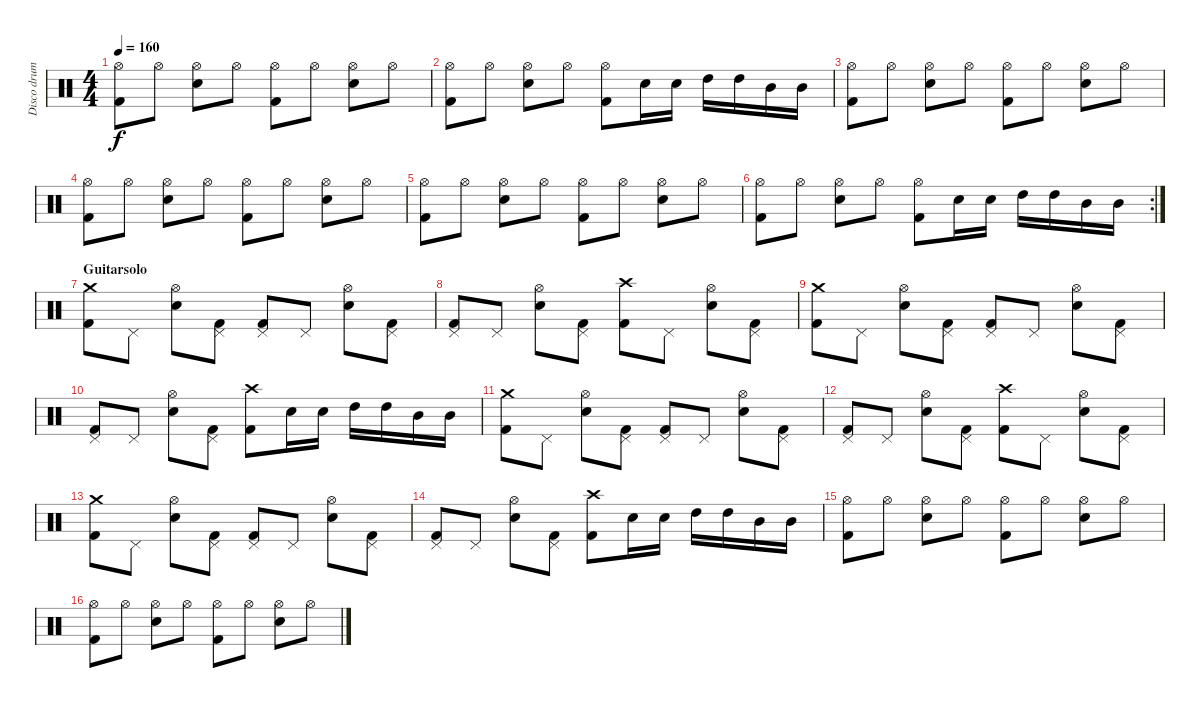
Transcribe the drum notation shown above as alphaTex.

\track ("Disco drum" "Disco drum") {instrument percussion}
\staff {score}
\articulation defaults
\ts (4 4)
\tempo 160
\clef neutral
\ks c
("Hi-Hat (open)" "Kick (hit) 2").8{dy f} "Hi-Hat (open)".8 ("Hi-Hat (open)" "Electric Snare (hit)").8 "Hi-Hat (open)".8 ("Hi-Hat (open)" "Kick (hit) 2").8 "Hi-Hat (open)".8 ("Hi-Hat (open)" "Electric Snare (hit)").8 "Hi-Hat (open)".8 |
("Hi-Hat (open)" "Kick (hit) 2").8 "Hi-Hat (open)".8 ("Hi-Hat (open)" "Electric Snare (hit)").8 "Hi-Hat (open)".8 ("Hi-Hat (open)" "Kick (hit) 2").8 "Electric Snare (hit)".16 "Electric Snare (hit)".16 "High Tom (hit)".16 "High Tom (hit)".16 "Mid Tom (hit)".16 "Mid Tom (hit)".16 |
("Hi-Hat (open)" "Kick (hit) 2").8 "Hi-Hat (open)".8 ("Hi-Hat (open)" "Electric Snare (hit)").8 "Hi-Hat (open)".8 ("Hi-Hat (open)" "Kick (hit) 2").8 "Hi-Hat (open)".8 ("Hi-Hat (open)" "Electric Snare (hit)").8 "Hi-Hat (open)".8 |
("Hi-Hat (open)" "Kick (hit) 2").8 "Hi-Hat (open)".8 ("Hi-Hat (open)" "Electric Snare (hit)").8 "Hi-Hat (open)".8 ("Hi-Hat (open)" "Kick (hit) 2").8 "Hi-Hat (open)".8 ("Hi-Hat (open)" "Electric Snare (hit)").8 "Hi-Hat (open)".8 |
("Hi-Hat (open)" "Kick (hit) 2").8 "Hi-Hat (open)".8 ("Hi-Hat (open)" "Electric Snare (hit)").8 "Hi-Hat (open)".8 ("Hi-Hat (open)" "Kick (hit) 2").8 "Hi-Hat (open)".8 ("Hi-Hat (open)" "Electric Snare (hit)").8 "Hi-Hat (open)".8 |
\rc 2
("Hi-Hat (open)" "Kick (hit) 2").8 "Hi-Hat (open)".8 ("Hi-Hat (open)" "Electric Snare (hit)").8 "Hi-Hat (open)".8 ("Hi-Hat (open)" "Kick (hit) 2").8 "Electric Snare (hit)".16 "Electric Snare (hit)".16 "High Tom (hit)".16 "High Tom (hit)".16 "Mid Tom (hit)".16 "Mid Tom (hit)".16 |
\section ("" "Guitarsolo")
("Crash medium (hit)" "Kick (hit) 2").8 "Pedal Hi-Hat (hit)".8 ("Hi-Hat (open)" "Electric Snare (hit)").8 ("Pedal Hi-Hat (hit)" "Kick (hit) 2").8 ("Pedal Hi-Hat (hit)" "Kick (hit) 2").8 "Pedal Hi-Hat (hit)".8 ("Hi-Hat (open)" "Electric Snare (hit)").8 ("Pedal Hi-Hat (hit)" "Kick (hit) 2").8 |
("Pedal Hi-Hat (hit)" "Kick (hit) 2").8 "Pedal Hi-Hat (hit)".8 ("Hi-Hat (open)" "Electric Snare (hit)").8 ("Pedal Hi-Hat (hit)" "Kick (hit) 2").8 ("Crash high (hit)" "Kick (hit) 2").8 "Pedal Hi-Hat (hit)".8 ("Hi-Hat (open)" "Electric Snare (hit)").8 ("Pedal Hi-Hat (hit)" "Kick (hit) 2").8 |
("Crash medium (hit)" "Kick (hit) 2").8 "Pedal Hi-Hat (hit)".8 ("Hi-Hat (open)" "Electric Snare (hit)").8 ("Pedal Hi-Hat (hit)" "Kick (hit) 2").8 ("Pedal Hi-Hat (hit)" "Kick (hit) 2").8 "Pedal Hi-Hat (hit)".8 ("Hi-Hat (open)" "Electric Snare (hit)").8 ("Pedal Hi-Hat (hit)" "Kick (hit) 2").8 |
("Pedal Hi-Hat (hit)" "Kick (hit) 2").8 "Pedal Hi-Hat (hit)".8 ("Hi-Hat (open)" "Electric Snare (hit)").8 ("Pedal Hi-Hat (hit)" "Kick (hit) 2").8 ("Crash high (hit)" "Kick (hit) 2").8 "Electric Snare (hit)".16 "Electric Snare (hit)".16 "High Tom (hit)".16 "High Tom (hit)".16 "Mid Tom (hit)".16 "Mid Tom (hit)".16 |
("Crash medium (hit)" "Kick (hit) 2").8 "Pedal Hi-Hat (hit)".8 ("Hi-Hat (open)" "Electric Snare (hit)").8 ("Pedal Hi-Hat (hit)" "Kick (hit) 2").8 ("Pedal Hi-Hat (hit)" "Kick (hit) 2").8 "Pedal Hi-Hat (hit)".8 ("Hi-Hat (open)" "Electric Snare (hit)").8 ("Pedal Hi-Hat (hit)" "Kick (hit) 2").8 |
("Pedal Hi-Hat (hit)" "Kick (hit) 2").8 "Pedal Hi-Hat (hit)".8 ("Hi-Hat (open)" "Electric Snare (hit)").8 ("Pedal Hi-Hat (hit)" "Kick (hit) 2").8 ("Crash high (hit)" "Kick (hit) 2").8 "Pedal Hi-Hat (hit)".8 ("Hi-Hat (open)" "Electric Snare (hit)").8 ("Pedal Hi-Hat (hit)" "Kick (hit) 2").8 |
("Crash medium (hit)" "Kick (hit) 2").8 "Pedal Hi-Hat (hit)".8 ("Hi-Hat (open)" "Electric Snare (hit)").8 ("Pedal Hi-Hat (hit)" "Kick (hit) 2").8 ("Pedal Hi-Hat (hit)" "Kick (hit) 2").8 "Pedal Hi-Hat (hit)".8 ("Hi-Hat (open)" "Electric Snare (hit)").8 ("Pedal Hi-Hat (hit)" "Kick (hit) 2").8 |
("Pedal Hi-Hat (hit)" "Kick (hit) 2").8 "Pedal Hi-Hat (hit)".8 ("Hi-Hat (open)" "Electric Snare (hit)").8 ("Pedal Hi-Hat (hit)" "Kick (hit) 2").8 ("Crash high (hit)" "Kick (hit) 2").8 "Electric Snare (hit)".16 "Electric Snare (hit)".16 "High Tom (hit)".16 "High Tom (hit)".16 "Mid Tom (hit)".16 "Mid Tom (hit)".16 |
("Hi-Hat (open)" "Kick (hit) 2").8 "Hi-Hat (open)".8 ("Hi-Hat (open)" "Electric Snare (hit)").8 "Hi-Hat (open)".8 ("Hi-Hat (open)" "Kick (hit) 2").8 "Hi-Hat (open)".8 ("Hi-Hat (open)" "Electric Snare (hit)").8 "Hi-Hat (open)".8 |
("Hi-Hat (open)" "Kick (hit) 2").8 "Hi-Hat (open)".8 ("Hi-Hat (open)" "Electric Snare (hit)").8 "Hi-Hat (open)".8 ("Hi-Hat (open)" "Kick (hit) 2").8 "Hi-Hat (open)".8 ("Hi-Hat (open)" "Electric Snare (hit)").8 "Hi-Hat (open)".8
